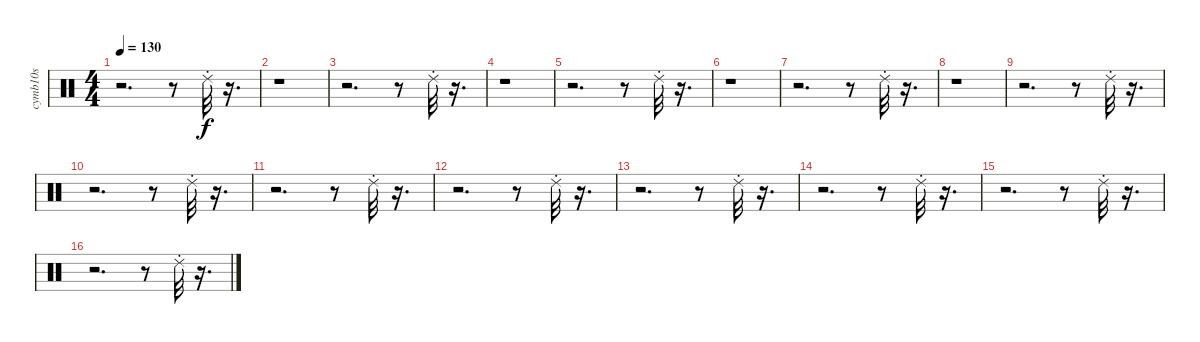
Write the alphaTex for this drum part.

\track ("cymb10s             " "cymb10s   ") {instrument percussion}
\staff {score}
\articulation defaults
\ts (4 4)
\tempo 130
\clef neutral
\ks c
r.2{d dy f} r.8 "Ride (choke) 2".32 r.16{d} |
r.1 |
r.2{d} r.8 "Ride (choke) 2".32 r.16{d} |
r.1 |
r.2{d} r.8 "Ride (choke) 2".32 r.16{d} |
r.1 |
r.2{d} r.8 "Ride (choke) 2".32 r.16{d} |
r.1 |
r.2{d} r.8 "Ride (choke) 2".32 r.16{d} |
r.2{d} r.8 "Ride (choke) 2".32 r.16{d} |
r.2{d} r.8 "Ride (choke) 2".32 r.16{d} |
r.2{d} r.8 "Ride (choke) 2".32 r.16{d} |
r.2{d} r.8 "Ride (choke) 2".32 r.16{d} |
r.2{d} r.8 "Ride (choke) 2".32 r.16{d} |
r.2{d} r.8 "Ride (choke) 2".32 r.16{d} |
r.2{d} r.8 "Ride (choke) 2".32 r.16{d}
